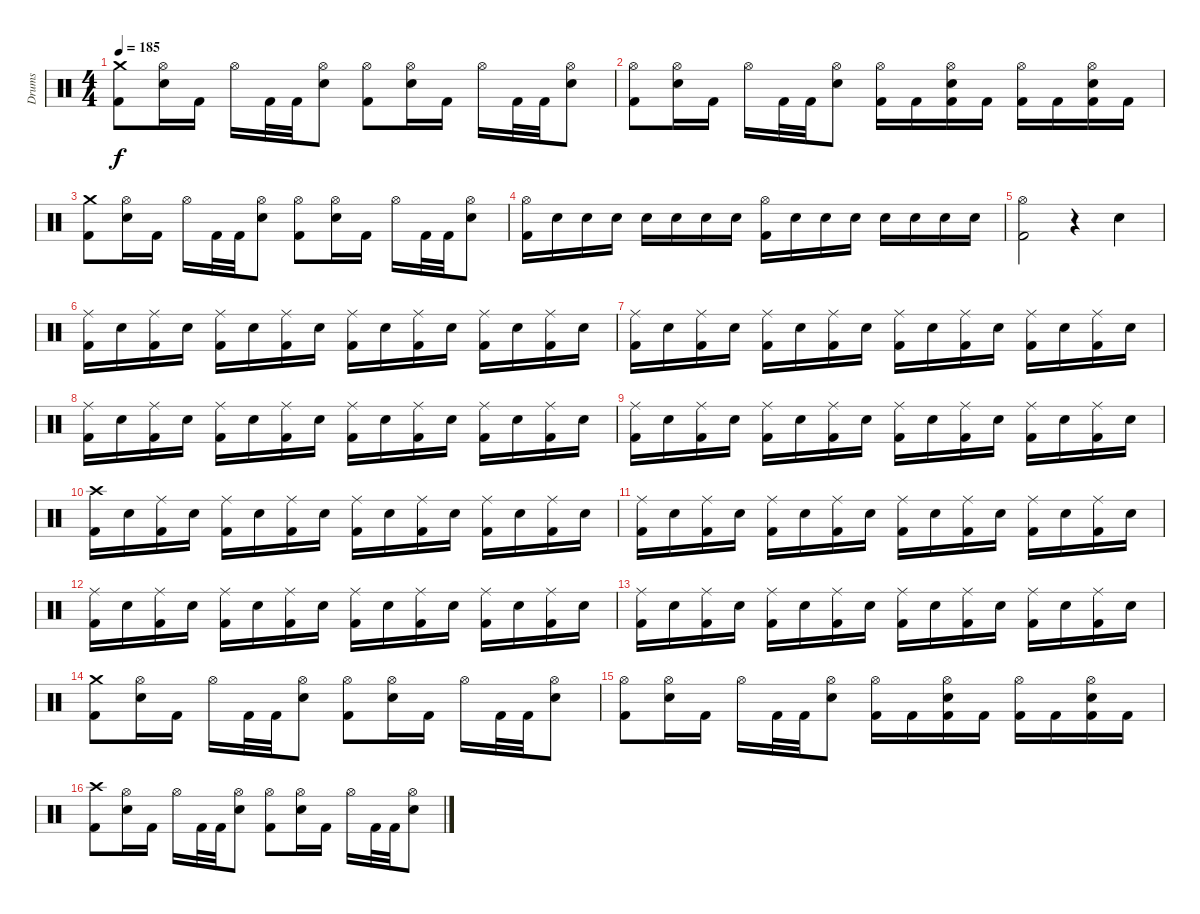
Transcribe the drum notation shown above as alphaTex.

\track ("Drums" "Drums") {instrument percussion}
\staff {score}
\articulation defaults
\ts (4 4)
\tempo 185
\clef neutral
\ks c
("Crash medium (hit)" "Kick (hit) 2").8{dy f} ("Hi-Hat (open)" "Electric Snare (hit)").16 "Kick (hit) 2".16 "Hi-Hat (open)".16 "Kick (hit) 2".32 "Kick (hit) 2".32 ("Hi-Hat (open)" "Electric Snare (hit)").8 ("Hi-Hat (open)" "Kick (hit) 2").8 ("Hi-Hat (open)" "Electric Snare (hit)").16 "Kick (hit) 2".16 "Hi-Hat (open)".16 "Kick (hit) 2".32 "Kick (hit) 2".32 ("Hi-Hat (open)" "Electric Snare (hit)").8 |
("Hi-Hat (open)" "Kick (hit) 2").8 ("Hi-Hat (open)" "Electric Snare (hit)").16 "Kick (hit) 2".16 "Hi-Hat (open)".16 "Kick (hit) 2".32 "Kick (hit) 2".32 ("Hi-Hat (open)" "Electric Snare (hit)").8 ("Hi-Hat (open)" "Kick (hit) 2").16 "Kick (hit) 2".16 ("Hi-Hat (open)" "Electric Snare (hit)" "Kick (hit) 2").16 "Kick (hit) 2".16 ("Hi-Hat (open)" "Kick (hit) 2").16 "Kick (hit) 2".16 ("Hi-Hat (open)" "Electric Snare (hit)" "Kick (hit) 2").16 "Kick (hit) 2".16 |
("Crash medium (hit)" "Kick (hit) 2").8 ("Hi-Hat (open)" "Electric Snare (hit)").16 "Kick (hit) 2".16 "Hi-Hat (open)".16 "Kick (hit) 2".32 "Kick (hit) 2".32 ("Hi-Hat (open)" "Electric Snare (hit)").8 ("Hi-Hat (open)" "Kick (hit) 2").8 ("Hi-Hat (open)" "Electric Snare (hit)").16 "Kick (hit) 2".16 "Hi-Hat (open)".16 "Kick (hit) 2".32 "Kick (hit) 2".32 ("Hi-Hat (open)" "Electric Snare (hit)").8 |
("Hi-Hat (open)" "Kick (hit) 2").16 "Electric Snare (hit)".16 "Electric Snare (hit)".16 "Electric Snare (hit)".16 "Electric Snare (hit)".16 "Electric Snare (hit)".16 "Electric Snare (hit)".16 "Electric Snare (hit)".16 ("Hi-Hat (open)" "Kick (hit) 2").16 "Electric Snare (hit)".16 "Electric Snare (hit)".16 "Electric Snare (hit)".16 "Electric Snare (hit)".16 "Electric Snare (hit)".16 "Electric Snare (hit)".16 "Electric Snare (hit)".16 |
("Hi-Hat (open)" "Kick (hit) 2").2 r.4 "Electric Snare (hit)".4 |
("Ride (middle)" "Kick (hit) 2").16 "Electric Snare (hit)".16 ("Ride (middle)" "Kick (hit) 2").16 "Electric Snare (hit)".16 ("Ride (middle)" "Kick (hit) 2").16 "Electric Snare (hit)".16 ("Ride (middle)" "Kick (hit) 2").16 "Electric Snare (hit)".16 ("Ride (middle)" "Kick (hit) 2").16 "Electric Snare (hit)".16 ("Ride (middle)" "Kick (hit) 2").16 "Electric Snare (hit)".16 ("Ride (middle)" "Kick (hit) 2").16 "Electric Snare (hit)".16 ("Ride (middle)" "Kick (hit) 2").16 "Electric Snare (hit)".16 |
("Ride (middle)" "Kick (hit) 2").16 "Electric Snare (hit)".16 ("Ride (middle)" "Kick (hit) 2").16 "Electric Snare (hit)".16 ("Ride (middle)" "Kick (hit) 2").16 "Electric Snare (hit)".16 ("Ride (middle)" "Kick (hit) 2").16 "Electric Snare (hit)".16 ("Ride (middle)" "Kick (hit) 2").16 "Electric Snare (hit)".16 ("Ride (middle)" "Kick (hit) 2").16 "Electric Snare (hit)".16 ("Ride (middle)" "Kick (hit) 2").16 "Electric Snare (hit)".16 ("Ride (middle)" "Kick (hit) 2").16 "Electric Snare (hit)".16 |
("Ride (middle)" "Kick (hit) 2").16 "Electric Snare (hit)".16 ("Ride (middle)" "Kick (hit) 2").16 "Electric Snare (hit)".16 ("Ride (middle)" "Kick (hit) 2").16 "Electric Snare (hit)".16 ("Ride (middle)" "Kick (hit) 2").16 "Electric Snare (hit)".16 ("Ride (middle)" "Kick (hit) 2").16 "Electric Snare (hit)".16 ("Ride (middle)" "Kick (hit) 2").16 "Electric Snare (hit)".16 ("Ride (middle)" "Kick (hit) 2").16 "Electric Snare (hit)".16 ("Ride (middle)" "Kick (hit) 2").16 "Electric Snare (hit)".16 |
("Ride (middle)" "Kick (hit) 2").16 "Electric Snare (hit)".16 ("Ride (middle)" "Kick (hit) 2").16 "Electric Snare (hit)".16 ("Ride (middle)" "Kick (hit) 2").16 "Electric Snare (hit)".16 ("Ride (middle)" "Kick (hit) 2").16 "Electric Snare (hit)".16 ("Ride (middle)" "Kick (hit) 2").16 "Electric Snare (hit)".16 ("Ride (middle)" "Kick (hit) 2").16 "Electric Snare (hit)".16 ("Ride (middle)" "Kick (hit) 2").16 "Electric Snare (hit)".16 ("Ride (middle)" "Kick (hit) 2").16 "Electric Snare (hit)".16 |
("Crash high (hit)" "Kick (hit) 2").16 "Electric Snare (hit)".16 ("Ride (middle)" "Kick (hit) 2").16 "Electric Snare (hit)".16 ("Ride (middle)" "Kick (hit) 2").16 "Electric Snare (hit)".16 ("Ride (middle)" "Kick (hit) 2").16 "Electric Snare (hit)".16 ("Ride (middle)" "Kick (hit) 2").16 "Electric Snare (hit)".16 ("Ride (middle)" "Kick (hit) 2").16 "Electric Snare (hit)".16 ("Ride (middle)" "Kick (hit) 2").16 "Electric Snare (hit)".16 ("Ride (middle)" "Kick (hit) 2").16 "Electric Snare (hit)".16 |
("Ride (middle)" "Kick (hit) 2").16 "Electric Snare (hit)".16 ("Ride (middle)" "Kick (hit) 2").16 "Electric Snare (hit)".16 ("Ride (middle)" "Kick (hit) 2").16 "Electric Snare (hit)".16 ("Ride (middle)" "Kick (hit) 2").16 "Electric Snare (hit)".16 ("Ride (middle)" "Kick (hit) 2").16 "Electric Snare (hit)".16 ("Ride (middle)" "Kick (hit) 2").16 "Electric Snare (hit)".16 ("Ride (middle)" "Kick (hit) 2").16 "Electric Snare (hit)".16 ("Ride (middle)" "Kick (hit) 2").16 "Electric Snare (hit)".16 |
("Ride (middle)" "Kick (hit) 2").16 "Electric Snare (hit)".16 ("Ride (middle)" "Kick (hit) 2").16 "Electric Snare (hit)".16 ("Ride (middle)" "Kick (hit) 2").16 "Electric Snare (hit)".16 ("Ride (middle)" "Kick (hit) 2").16 "Electric Snare (hit)".16 ("Ride (middle)" "Kick (hit) 2").16 "Electric Snare (hit)".16 ("Ride (middle)" "Kick (hit) 2").16 "Electric Snare (hit)".16 ("Ride (middle)" "Kick (hit) 2").16 "Electric Snare (hit)".16 ("Ride (middle)" "Kick (hit) 2").16 "Electric Snare (hit)".16 |
("Ride (middle)" "Kick (hit) 2").16 "Electric Snare (hit)".16 ("Ride (middle)" "Kick (hit) 2").16 "Electric Snare (hit)".16 ("Ride (middle)" "Kick (hit) 2").16 "Electric Snare (hit)".16 ("Ride (middle)" "Kick (hit) 2").16 "Electric Snare (hit)".16 ("Ride (middle)" "Kick (hit) 2").16 "Electric Snare (hit)".16 ("Ride (middle)" "Kick (hit) 2").16 "Electric Snare (hit)".16 ("Ride (middle)" "Kick (hit) 2").16 "Electric Snare (hit)".16 ("Ride (middle)" "Kick (hit) 2").16 "Electric Snare (hit)".16 |
("Crash medium (hit)" "Kick (hit) 2").8 ("Hi-Hat (open)" "Electric Snare (hit)").16 "Kick (hit) 2".16 "Hi-Hat (open)".16 "Kick (hit) 2".32 "Kick (hit) 2".32 ("Hi-Hat (open)" "Electric Snare (hit)").8 ("Hi-Hat (open)" "Kick (hit) 2").8 ("Hi-Hat (open)" "Electric Snare (hit)").16 "Kick (hit) 2".16 "Hi-Hat (open)".16 "Kick (hit) 2".32 "Kick (hit) 2".32 ("Hi-Hat (open)" "Electric Snare (hit)").8 |
("Hi-Hat (open)" "Kick (hit) 2").8 ("Hi-Hat (open)" "Electric Snare (hit)").16 "Kick (hit) 2".16 "Hi-Hat (open)".16 "Kick (hit) 2".32 "Kick (hit) 2".32 ("Hi-Hat (open)" "Electric Snare (hit)").8 ("Hi-Hat (open)" "Kick (hit) 2").16 "Kick (hit) 2".16 ("Hi-Hat (open)" "Electric Snare (hit)" "Kick (hit) 2").16 "Kick (hit) 2".16 ("Hi-Hat (open)" "Kick (hit) 2").16 "Kick (hit) 2".16 ("Hi-Hat (open)" "Electric Snare (hit)" "Kick (hit) 2").16 "Kick (hit) 2".16 |
("Crash high (hit)" "Kick (hit) 2").8 ("Hi-Hat (open)" "Electric Snare (hit)").16 "Kick (hit) 2".16 "Hi-Hat (open)".16 "Kick (hit) 2".32 "Kick (hit) 2".32 ("Hi-Hat (open)" "Electric Snare (hit)").8 ("Hi-Hat (open)" "Kick (hit) 2").8 ("Hi-Hat (open)" "Electric Snare (hit)").16 "Kick (hit) 2".16 "Hi-Hat (open)".16 "Kick (hit) 2".32 "Kick (hit) 2".32 ("Hi-Hat (open)" "Electric Snare (hit)").8
